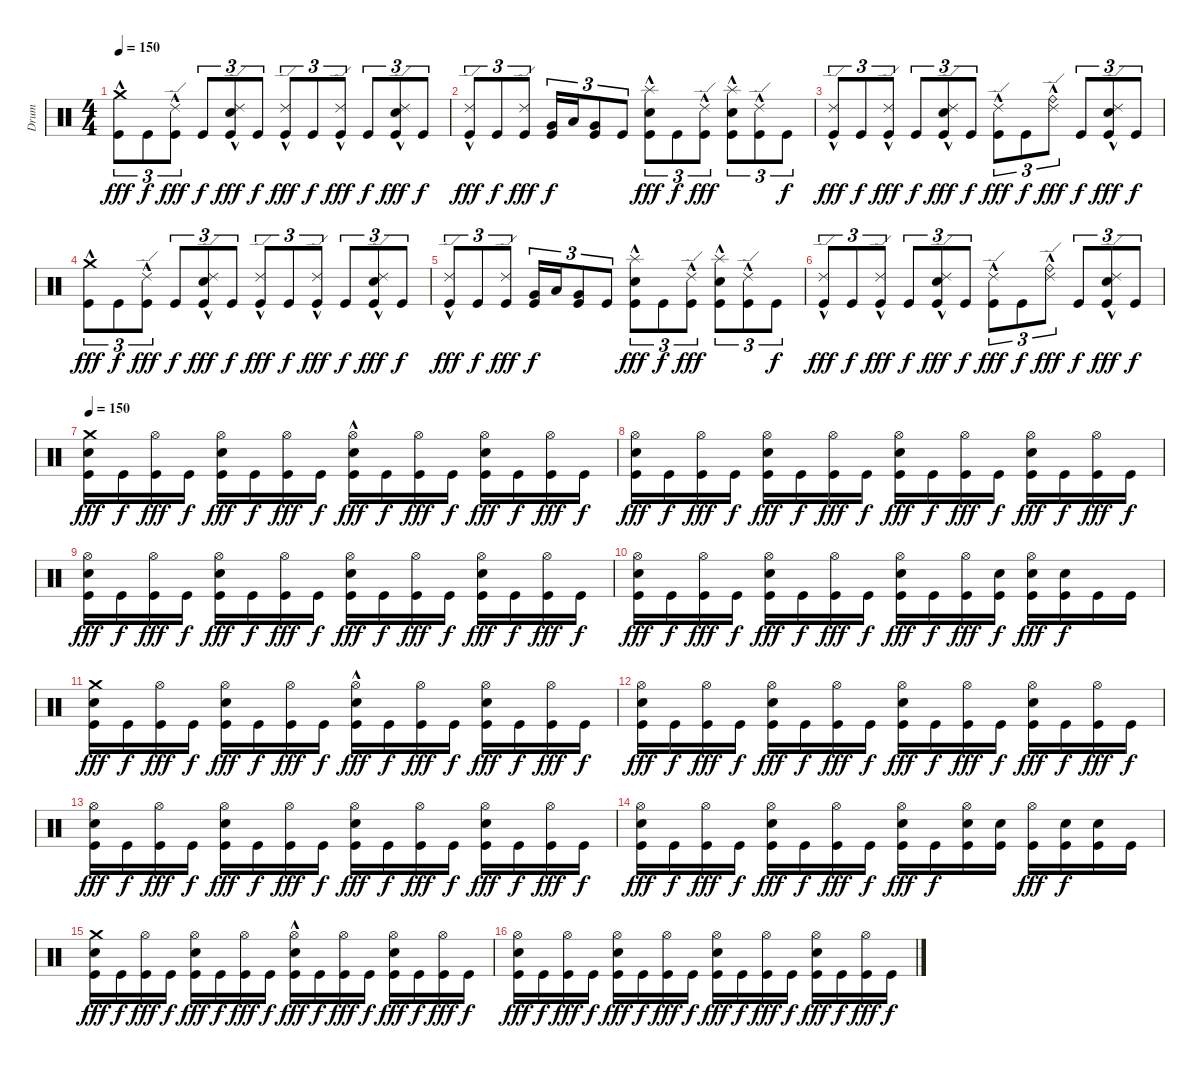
\track ("Drum" "Drum") {instrument percussion}
\staff {score}
\articulation defaults
\ts (4 4)
\tempo 150
\clef neutral
\ks c
("Crash medium (hit)"{hac} "Kick (hit)").8{tu (3 2) dy fff} "Kick (hit)".8{tu (3 2) dy f} ("Ride (edge) 2"{hac} "Kick (hit)").8{tu (3 2) dy fff} "Kick (hit)".8{tu (3 2) dy f} ("Ride (edge) 2"{hac} "Snare (hit) 2" "Kick (hit)").8{tu (3 2) dy fff} "Kick (hit)".8{tu (3 2) dy f} ("Ride (edge) 2"{hac} "Kick (hit)").8{tu (3 2) dy fff} "Kick (hit)".8{tu (3 2) dy f} ("Ride (edge) 2"{hac} "Kick (hit)").8{tu (3 2) dy fff} "Kick (hit)".8{tu (3 2) dy f} ("Ride (edge) 2"{hac} "Snare (hit) 2" "Kick (hit)").8{tu (3 2) dy fff} "Kick (hit)".8{tu (3 2) dy f} |
("Ride (edge) 2"{hac} "Kick (hit)").8{tu (3 2) dy fff} "Kick (hit)".8{tu (3 2) dy f} ("Ride (edge) 2" "Kick (hit)").8{tu (3 2) dy fff} ("Very Low Tom (hit)" "Kick (hit)").16{tu (3 2) dy f} "Low Floor Tom (hit)".16{tu (3 2)} ("Very Low Tom (hit)" "Kick (hit)").8{tu (3 2)} "Kick (hit)".8{tu (3 2)} ("Splash (hit)"{hac} "Snare (hit) 2" "Kick (hit)").8{tu (3 2) dy fff} "Kick (hit)".8{tu (3 2) dy f} ("Ride (edge) 2"{hac} "Kick (hit)").8{tu (3 2) dy fff} ("Splash (hit)"{hac} "Snare (hit) 2" "Kick (hit)").8{tu (3 2)} ("Ride (edge) 2"{hac} "Kick (hit)").8{tu (3 2)} "Kick (hit)".8{tu (3 2) dy f} |
("Ride (edge) 2"{hac} "Kick (hit)").8{tu (3 2) dy fff} "Kick (hit)".8{tu (3 2) dy f} ("Ride (edge) 2"{hac} "Kick (hit)").8{tu (3 2) dy fff} "Kick (hit)".8{tu (3 2) dy f} ("Ride (edge) 2"{hac} "Snare (hit) 2" "Kick (hit)").8{tu (3 2) dy fff} "Kick (hit)".8{tu (3 2) dy f} ("Ride (edge) 2"{hac} "Kick (hit)").8{tu (3 2) dy fff} "Kick (hit)".8{tu (3 2) dy f} ("Ride (edge) 2"{hac} "Ride (bell)").8{tu (3 2) dy fff} "Kick (hit)".8{tu (3 2) dy f} ("Ride (edge) 2"{hac} "Snare (hit) 2" "Kick (hit)").8{tu (3 2) dy fff} "Kick (hit)".8{tu (3 2) dy f} |
("Crash medium (hit)"{hac} "Kick (hit)").8{tu (3 2) dy fff} "Kick (hit)".8{tu (3 2) dy f} ("Ride (edge) 2"{hac} "Kick (hit)").8{tu (3 2) dy fff} "Kick (hit)".8{tu (3 2) dy f} ("Ride (edge) 2"{hac} "Snare (hit) 2" "Kick (hit)").8{tu (3 2) dy fff} "Kick (hit)".8{tu (3 2) dy f} ("Ride (edge) 2"{hac} "Kick (hit)").8{tu (3 2) dy fff} "Kick (hit)".8{tu (3 2) dy f} ("Ride (edge) 2"{hac} "Kick (hit)").8{tu (3 2) dy fff} "Kick (hit)".8{tu (3 2) dy f} ("Ride (edge) 2"{hac} "Snare (hit) 2" "Kick (hit)").8{tu (3 2) dy fff} "Kick (hit)".8{tu (3 2) dy f} |
("Ride (edge) 2"{hac} "Kick (hit)").8{tu (3 2) dy fff} "Kick (hit)".8{tu (3 2) dy f} ("Ride (edge) 2" "Kick (hit)").8{tu (3 2) dy fff} ("Very Low Tom (hit)" "Kick (hit)").16{tu (3 2) dy f} "Low Floor Tom (hit)".16{tu (3 2)} ("Very Low Tom (hit)" "Kick (hit)").8{tu (3 2)} "Kick (hit)".8{tu (3 2)} ("Splash (hit)"{hac} "Snare (hit) 2" "Kick (hit)").8{tu (3 2) dy fff} "Kick (hit)".8{tu (3 2) dy f} ("Ride (edge) 2"{hac} "Kick (hit)").8{tu (3 2) dy fff} ("Splash (hit)"{hac} "Snare (hit) 2" "Kick (hit)").8{tu (3 2)} ("Ride (edge) 2"{hac} "Kick (hit)").8{tu (3 2)} "Kick (hit)".8{tu (3 2) dy f} |
("Ride (edge) 2"{hac} "Kick (hit)").8{tu (3 2) dy fff} "Kick (hit)".8{tu (3 2) dy f} ("Ride (edge) 2"{hac} "Kick (hit)").8{tu (3 2) dy fff} "Kick (hit)".8{tu (3 2) dy f} ("Ride (edge) 2"{hac} "Snare (hit) 2" "Kick (hit)").8{tu (3 2) dy fff} "Kick (hit)".8{tu (3 2) dy f} ("Ride (edge) 2"{hac} "Kick (hit)").8{tu (3 2) dy fff} "Kick (hit)".8{tu (3 2) dy f} ("Ride (edge) 2"{hac} "Ride (bell)").8{tu (3 2) dy fff} "Kick (hit)".8{tu (3 2) dy f} ("Ride (edge) 2"{hac} "Snare (hit) 2" "Kick (hit)").8{tu (3 2) dy fff} "Kick (hit)".8{tu (3 2) dy f} |
\tempo 150
("Crash medium (hit)" "Snare (hit) 2" "Kick (hit)").16{dy fff} "Kick (hit)".16{dy f} ("Hi-Hat (open)" "Kick (hit)").16{dy fff} "Kick (hit)".16{dy f} ("Hi-Hat (open)" "Snare (hit) 2" "Kick (hit)").16{dy fff} "Kick (hit)".16{dy f} ("Hi-Hat (open)" "Kick (hit)").16{dy fff} "Kick (hit)".16{dy f} ("Hi-Hat (open)"{hac} "Snare (hit) 2" "Kick (hit)").16{dy fff} "Kick (hit)".16{dy f} ("Hi-Hat (open)" "Kick (hit)").16{dy fff} "Kick (hit)".16{dy f} ("Hi-Hat (open)" "Snare (hit) 2" "Kick (hit)").16{dy fff} "Kick (hit)".16{dy f} ("Hi-Hat (open)" "Kick (hit)").16{dy fff} "Kick (hit)".16{dy f} |
("Hi-Hat (open)" "Snare (hit) 2" "Kick (hit)").16{dy fff} "Kick (hit)".16{dy f} ("Hi-Hat (open)" "Kick (hit)").16{dy fff} "Kick (hit)".16{dy f} ("Hi-Hat (open)" "Snare (hit) 2" "Kick (hit)").16{dy fff} "Kick (hit)".16{dy f} ("Hi-Hat (open)" "Kick (hit)").16{dy fff} "Kick (hit)".16{dy f} ("Hi-Hat (open)" "Snare (hit) 2" "Kick (hit)").16{dy fff} "Kick (hit)".16{dy f} ("Hi-Hat (open)" "Kick (hit)").16{dy fff} "Kick (hit)".16{dy f} ("Hi-Hat (open)" "Snare (hit) 2" "Kick (hit)").16{dy fff} "Kick (hit)".16{dy f} ("Hi-Hat (open)" "Kick (hit)").16{dy fff} "Kick (hit)".16{dy f} |
("Hi-Hat (open)" "Snare (hit) 2" "Kick (hit)").16{dy fff} "Kick (hit)".16{dy f} ("Hi-Hat (open)" "Kick (hit)").16{dy fff} "Kick (hit)".16{dy f} ("Hi-Hat (open)" "Snare (hit) 2" "Kick (hit)").16{dy fff} "Kick (hit)".16{dy f} ("Hi-Hat (open)" "Kick (hit)").16{dy fff} "Kick (hit)".16{dy f} ("Hi-Hat (open)" "Snare (hit) 2" "Kick (hit)").16{dy fff} "Kick (hit)".16{dy f} ("Hi-Hat (open)" "Kick (hit)").16{dy fff} "Kick (hit)".16{dy f} ("Hi-Hat (open)" "Snare (hit) 2" "Kick (hit)").16{dy fff} "Kick (hit)".16{dy f} ("Hi-Hat (open)" "Kick (hit)").16{dy fff} "Kick (hit)".16{dy f} |
("Hi-Hat (open)" "Snare (hit) 2" "Kick (hit)").16{dy fff} "Kick (hit)".16{dy f} ("Hi-Hat (open)" "Kick (hit)").16{dy fff} "Kick (hit)".16{dy f} ("Hi-Hat (open)" "Snare (hit) 2" "Kick (hit)").16{dy fff} "Kick (hit)".16{dy f} ("Hi-Hat (open)" "Kick (hit)").16{dy fff} "Kick (hit)".16{dy f} ("Hi-Hat (open)" "Snare (hit) 2" "Kick (hit)").16{dy fff} "Kick (hit)".16{dy f} ("Hi-Hat (open)" "Kick (hit)").16{dy fff} ("Snare (hit) 2" "Kick (hit)").16{dy f} ("Hi-Hat (open)" "Snare (hit) 2" "Kick (hit)").16{dy fff} ("Snare (hit) 2" "Kick (hit)").16{dy f} "Kick (hit)".16 "Kick (hit)".16 |
("Crash medium (hit)" "Snare (hit) 2" "Kick (hit)").16{dy fff} "Kick (hit)".16{dy f} ("Hi-Hat (open)" "Kick (hit)").16{dy fff} "Kick (hit)".16{dy f} ("Hi-Hat (open)" "Snare (hit) 2" "Kick (hit)").16{dy fff} "Kick (hit)".16{dy f} ("Hi-Hat (open)" "Kick (hit)").16{dy fff} "Kick (hit)".16{dy f} ("Hi-Hat (open)"{hac} "Snare (hit) 2" "Kick (hit)").16{dy fff} "Kick (hit)".16{dy f} ("Hi-Hat (open)" "Kick (hit)").16{dy fff} "Kick (hit)".16{dy f} ("Hi-Hat (open)" "Snare (hit) 2" "Kick (hit)").16{dy fff} "Kick (hit)".16{dy f} ("Hi-Hat (open)" "Kick (hit)").16{dy fff} "Kick (hit)".16{dy f} |
("Hi-Hat (open)" "Snare (hit) 2" "Kick (hit)").16{dy fff} "Kick (hit)".16{dy f} ("Hi-Hat (open)" "Kick (hit)").16{dy fff} "Kick (hit)".16{dy f} ("Hi-Hat (open)" "Snare (hit) 2" "Kick (hit)").16{dy fff} "Kick (hit)".16{dy f} ("Hi-Hat (open)" "Kick (hit)").16{dy fff} "Kick (hit)".16{dy f} ("Hi-Hat (open)" "Snare (hit) 2" "Kick (hit)").16{dy fff} "Kick (hit)".16{dy f} ("Hi-Hat (open)" "Kick (hit)").16{dy fff} "Kick (hit)".16{dy f} ("Hi-Hat (open)" "Snare (hit) 2" "Kick (hit)").16{dy fff} "Kick (hit)".16{dy f} ("Hi-Hat (open)" "Kick (hit)").16{dy fff} "Kick (hit)".16{dy f} |
("Hi-Hat (open)" "Snare (hit) 2" "Kick (hit)").16{dy fff} "Kick (hit)".16{dy f} ("Hi-Hat (open)" "Kick (hit)").16{dy fff} "Kick (hit)".16{dy f} ("Hi-Hat (open)" "Snare (hit) 2" "Kick (hit)").16{dy fff} "Kick (hit)".16{dy f} ("Hi-Hat (open)" "Kick (hit)").16{dy fff} "Kick (hit)".16{dy f} ("Hi-Hat (open)" "Snare (hit) 2" "Kick (hit)").16{dy fff} "Kick (hit)".16{dy f} ("Hi-Hat (open)" "Kick (hit)").16{dy fff} "Kick (hit)".16{dy f} ("Hi-Hat (open)" "Snare (hit) 2" "Kick (hit)").16{dy fff} "Kick (hit)".16{dy f} ("Hi-Hat (open)" "Kick (hit)").16{dy fff} "Kick (hit)".16{dy f} |
("Hi-Hat (open)" "Snare (hit) 2" "Kick (hit)").16{dy fff} "Kick (hit)".16{dy f} ("Hi-Hat (open)" "Kick (hit)").16{dy fff} "Kick (hit)".16{dy f} ("Hi-Hat (open)" "Snare (hit) 2" "Kick (hit)").16{dy fff} "Kick (hit)".16{dy f} ("Hi-Hat (open)" "Kick (hit)").16{dy fff} "Kick (hit)".16{dy f} ("Hi-Hat (open)" "Snare (hit) 2" "Kick (hit)").16{dy fff} "Kick (hit)".16{dy f} ("Hi-Hat (open)" "Snare (hit) 2" "Kick (hit)").16 ("Snare (hit) 2" "Kick (hit)").16 ("Hi-Hat (open)" "Kick (hit)").16{dy fff} ("Snare (hit) 2" "Kick (hit)").16{dy f} ("Snare (hit) 2" "Kick (hit)").16 "Kick (hit)".16 |
("Crash medium (hit)" "Snare (hit) 2" "Kick (hit)").16{dy fff} "Kick (hit)".16{dy f} ("Hi-Hat (open)" "Kick (hit)").16{dy fff} "Kick (hit)".16{dy f} ("Hi-Hat (open)" "Snare (hit) 2" "Kick (hit)").16{dy fff} "Kick (hit)".16{dy f} ("Hi-Hat (open)" "Kick (hit)").16{dy fff} "Kick (hit)".16{dy f} ("Hi-Hat (open)"{hac} "Snare (hit) 2" "Kick (hit)").16{dy fff} "Kick (hit)".16{dy f} ("Hi-Hat (open)" "Kick (hit)").16{dy fff} "Kick (hit)".16{dy f} ("Hi-Hat (open)" "Snare (hit) 2" "Kick (hit)").16{dy fff} "Kick (hit)".16{dy f} ("Hi-Hat (open)" "Kick (hit)").16{dy fff} "Kick (hit)".16{dy f} |
("Hi-Hat (open)" "Snare (hit) 2" "Kick (hit)").16{dy fff} "Kick (hit)".16{dy f} ("Hi-Hat (open)" "Kick (hit)").16{dy fff} "Kick (hit)".16{dy f} ("Hi-Hat (open)" "Snare (hit) 2" "Kick (hit)").16{dy fff} "Kick (hit)".16{dy f} ("Hi-Hat (open)" "Kick (hit)").16{dy fff} "Kick (hit)".16{dy f} ("Hi-Hat (open)" "Snare (hit) 2" "Kick (hit)").16{dy fff} "Kick (hit)".16{dy f} ("Hi-Hat (open)" "Kick (hit)").16{dy fff} "Kick (hit)".16{dy f} ("Hi-Hat (open)" "Snare (hit) 2" "Kick (hit)").16{dy fff} "Kick (hit)".16{dy f} ("Hi-Hat (open)" "Kick (hit)").16{dy fff} "Kick (hit)".16{dy f}
